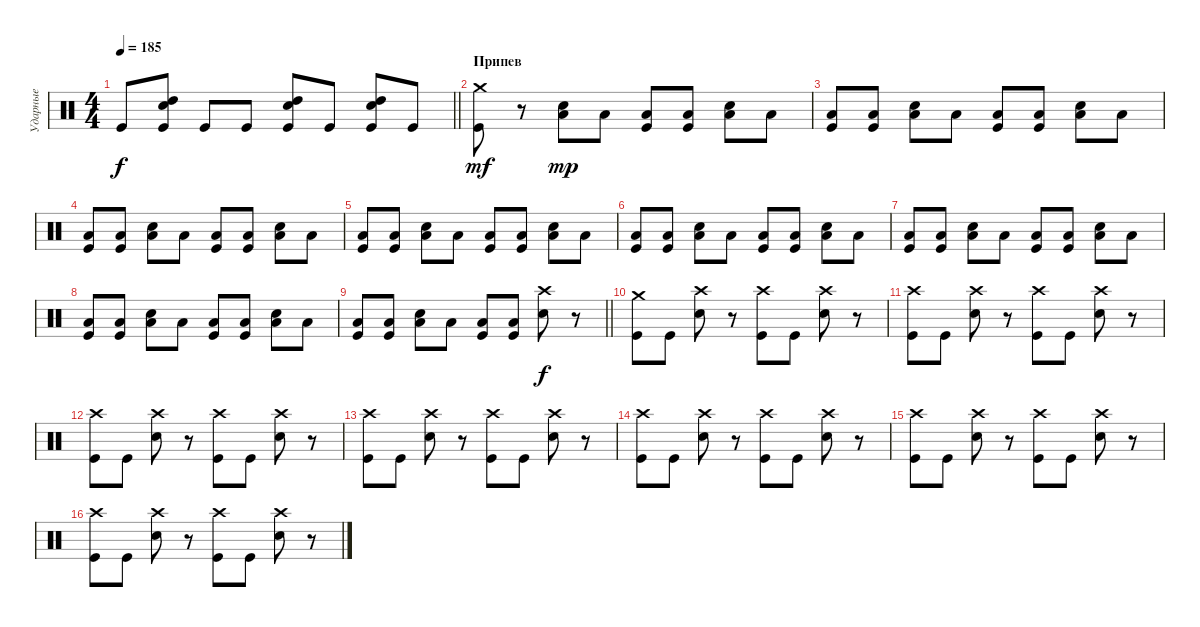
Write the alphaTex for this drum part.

\track ("Ударные" "Ударные") {instrument percussion}
\staff {score}
\articulation defaults
\ts (4 4)
\tempo 185
\clef neutral
\barLineRight lightlight
\ks c "Kick (hit)".8{dy f}
("High Tom (hit)" "Electric Snare (hit)" "Kick (hit)").8 "Kick (hit)".8 "Kick (hit)".8 ("High Tom (hit)" "Electric Snare (hit)" "Kick (hit)").8 "Kick (hit)".8 ("High Tom (hit)" "Electric Snare (hit)" "Kick (hit)").8 "Kick (hit)".8 |
\section ("" "Припев")
("Crash medium (hit)" "Kick (hit)").8{dy mf} r.8 ("Low Tom (hit)" "Electric Snare (hit)").8{dy mp} "Low Tom (hit)".8 ("Low Tom (hit)" "Kick (hit)").8 ("Low Tom (hit)" "Kick (hit)").8 ("Low Tom (hit)" "Electric Snare (hit)").8 "Low Tom (hit)".8 |
("Low Tom (hit)" "Kick (hit)").8 ("Low Tom (hit)" "Kick (hit)").8 ("Low Tom (hit)" "Electric Snare (hit)").8 "Low Tom (hit)".8 ("Low Tom (hit)" "Kick (hit)").8 ("Low Tom (hit)" "Kick (hit)").8 ("Low Tom (hit)" "Electric Snare (hit)").8 "Low Tom (hit)".8 |
("Low Tom (hit)" "Kick (hit)").8 ("Low Tom (hit)" "Kick (hit)").8 ("Low Tom (hit)" "Electric Snare (hit)").8 "Low Tom (hit)".8 ("Low Tom (hit)" "Kick (hit)").8 ("Low Tom (hit)" "Kick (hit)").8 ("Low Tom (hit)" "Electric Snare (hit)").8 "Low Tom (hit)".8 |
("Low Tom (hit)" "Kick (hit)").8 ("Low Tom (hit)" "Kick (hit)").8 ("Low Tom (hit)" "Electric Snare (hit)").8 "Low Tom (hit)".8 ("Low Tom (hit)" "Kick (hit)").8 ("Low Tom (hit)" "Kick (hit)").8 ("Low Tom (hit)" "Electric Snare (hit)").8 "Low Tom (hit)".8 |
("Low Tom (hit)" "Kick (hit)").8 ("Low Tom (hit)" "Kick (hit)").8 ("Low Tom (hit)" "Electric Snare (hit)").8 "Low Tom (hit)".8 ("Low Tom (hit)" "Kick (hit)").8 ("Low Tom (hit)" "Kick (hit)").8 ("Low Tom (hit)" "Electric Snare (hit)").8 "Low Tom (hit)".8 |
("Low Tom (hit)" "Kick (hit)").8 ("Low Tom (hit)" "Kick (hit)").8 ("Low Tom (hit)" "Electric Snare (hit)").8 "Low Tom (hit)".8 ("Low Tom (hit)" "Kick (hit)").8 ("Low Tom (hit)" "Kick (hit)").8 ("Low Tom (hit)" "Electric Snare (hit)").8 "Low Tom (hit)".8 |
("Low Tom (hit)" "Kick (hit)").8 ("Low Tom (hit)" "Kick (hit)").8 ("Low Tom (hit)" "Electric Snare (hit)").8 "Low Tom (hit)".8 ("Low Tom (hit)" "Kick (hit)").8 ("Low Tom (hit)" "Kick (hit)").8 ("Low Tom (hit)" "Electric Snare (hit)").8 "Low Tom (hit)".8 |
\barLineRight lightlight
("Low Tom (hit)" "Kick (hit)").8 ("Low Tom (hit)" "Kick (hit)").8 ("Low Tom (hit)" "Electric Snare (hit)").8 "Low Tom (hit)".8 ("Low Tom (hit)" "Kick (hit)").8 ("Low Tom (hit)" "Kick (hit)").8 ("Crash high (hit)" "Electric Snare (hit)").8{dy f} r.8 |
\section ("" " ")
("Crash medium (hit)" "Kick (hit)").8 "Kick (hit)".8 ("Crash high (hit)" "Electric Snare (hit)").8 r.8 ("Crash high (hit)" "Kick (hit)").8 "Kick (hit)".8 ("Crash high (hit)" "Electric Snare (hit)").8 r.8 |
("Crash high (hit)" "Kick (hit)").8 "Kick (hit)".8 ("Crash high (hit)" "Electric Snare (hit)").8 r.8 ("Crash high (hit)" "Kick (hit)").8 "Kick (hit)".8 ("Crash high (hit)" "Electric Snare (hit)").8 r.8 |
("Crash high (hit)" "Kick (hit)").8 "Kick (hit)".8 ("Crash high (hit)" "Electric Snare (hit)").8 r.8 ("Crash high (hit)" "Kick (hit)").8 "Kick (hit)".8 ("Crash high (hit)" "Electric Snare (hit)").8 r.8 |
("Crash high (hit)" "Kick (hit)").8 "Kick (hit)".8 ("Crash high (hit)" "Electric Snare (hit)").8 r.8 ("Crash high (hit)" "Kick (hit)").8 "Kick (hit)".8 ("Crash high (hit)" "Electric Snare (hit)").8 r.8 |
("Crash high (hit)" "Kick (hit)").8 "Kick (hit)".8 ("Crash high (hit)" "Electric Snare (hit)").8 r.8 ("Crash high (hit)" "Kick (hit)").8 "Kick (hit)".8 ("Crash high (hit)" "Electric Snare (hit)").8 r.8 |
("Crash high (hit)" "Kick (hit)").8 "Kick (hit)".8 ("Crash high (hit)" "Electric Snare (hit)").8 r.8 ("Crash high (hit)" "Kick (hit)").8 "Kick (hit)".8 ("Crash high (hit)" "Electric Snare (hit)").8 r.8 |
("Crash high (hit)" "Kick (hit)").8 "Kick (hit)".8 ("Crash high (hit)" "Electric Snare (hit)").8 r.8 ("Crash high (hit)" "Kick (hit)").8 "Kick (hit)".8 ("Crash high (hit)" "Electric Snare (hit)").8 r.8
